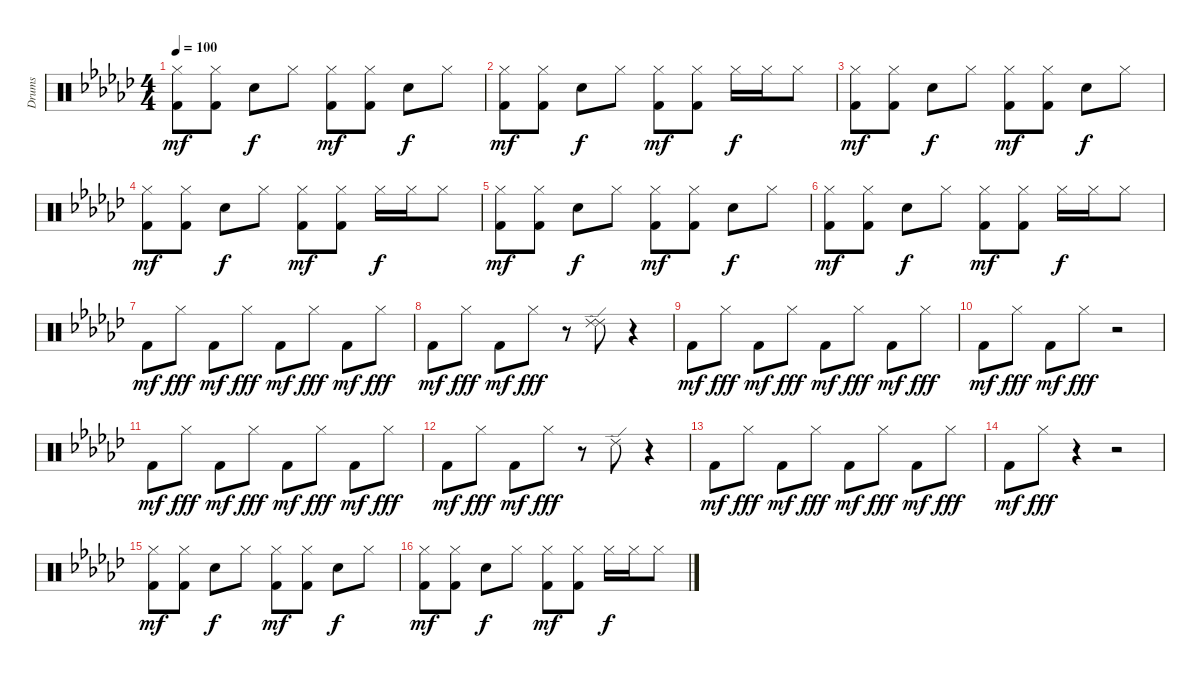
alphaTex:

\track ("Drums" "Drums") {instrument percussion}
\staff {score}
\articulation defaults
\ts (4 4)
\tempo 100
\clef neutral
\ks ebminor
("Hi-Hat (closed)" "Kick (hit) 2").8{dy mf} ("Hi-Hat (closed)" "Kick (hit) 2").8 "Snare (hit) 2".8{dy f} "Hi-Hat (closed)".8 ("Hi-Hat (closed)" "Kick (hit) 2").8{dy mf} ("Hi-Hat (closed)" "Kick (hit) 2").8 "Snare (hit) 2".8{dy f} "Hi-Hat (closed)".8 |
("Hi-Hat (closed)" "Kick (hit) 2").8{dy mf} ("Hi-Hat (closed)" "Kick (hit) 2").8 "Snare (hit) 2".8{dy f} "Hi-Hat (closed)".8 ("Hi-Hat (closed)" "Kick (hit) 2").8{dy mf} ("Hi-Hat (closed)" "Kick (hit) 2").8 "Hi-Hat (closed)".16{dy f} "Hi-Hat (closed)".16 "Hi-Hat (closed)".8 |
("Hi-Hat (closed)" "Kick (hit) 2").8{dy mf} ("Hi-Hat (closed)" "Kick (hit) 2").8 "Snare (hit) 2".8{dy f} "Hi-Hat (closed)".8 ("Hi-Hat (closed)" "Kick (hit) 2").8{dy mf} ("Hi-Hat (closed)" "Kick (hit) 2").8 "Snare (hit) 2".8{dy f} "Hi-Hat (closed)".8 |
("Hi-Hat (closed)" "Kick (hit) 2").8{dy mf} ("Hi-Hat (closed)" "Kick (hit) 2").8 "Snare (hit) 2".8{dy f} "Hi-Hat (closed)".8 ("Hi-Hat (closed)" "Kick (hit) 2").8{dy mf} ("Hi-Hat (closed)" "Kick (hit) 2").8 "Hi-Hat (closed)".16{dy f} "Hi-Hat (closed)".16 "Hi-Hat (closed)".8 |
("Hi-Hat (closed)" "Kick (hit) 2").8{dy mf} ("Hi-Hat (closed)" "Kick (hit) 2").8 "Snare (hit) 2".8{dy f} "Hi-Hat (closed)".8 ("Hi-Hat (closed)" "Kick (hit) 2").8{dy mf} ("Hi-Hat (closed)" "Kick (hit) 2").8 "Snare (hit) 2".8{dy f} "Hi-Hat (closed)".8 |
("Hi-Hat (closed)" "Kick (hit) 2").8{dy mf} ("Hi-Hat (closed)" "Kick (hit) 2").8 "Snare (hit) 2".8{dy f} "Hi-Hat (closed)".8 ("Hi-Hat (closed)" "Kick (hit) 2").8{dy mf} ("Hi-Hat (closed)" "Kick (hit) 2").8 "Hi-Hat (closed)".16{dy f} "Hi-Hat (closed)".16 "Hi-Hat (closed)".8 |
"Kick (hit) 2".8{dy mf} "Hi-Hat (closed)".8{dy fff} "Kick (hit) 2".8{dy mf} "Hi-Hat (closed)".8{dy fff} "Kick (hit) 2".8{dy mf} "Hi-Hat (closed)".8{dy fff} "Kick (hit) 2".8{dy mf} "Hi-Hat (closed)".8{dy fff} |
"Kick (hit) 2".8{dy mf} "Hi-Hat (closed)".8{dy fff} "Kick (hit) 2".8{dy mf} "Hi-Hat (closed)".8{dy fff} r.8 ("Ride (edge) 2" "Ride (edge) 2").8 r.4 |
"Kick (hit) 2".8{dy mf} "Hi-Hat (closed)".8{dy fff} "Kick (hit) 2".8{dy mf} "Hi-Hat (closed)".8{dy fff} "Kick (hit) 2".8{dy mf} "Hi-Hat (closed)".8{dy fff} "Kick (hit) 2".8{dy mf} "Hi-Hat (closed)".8{dy fff} |
"Kick (hit) 2".8{dy mf} "Hi-Hat (closed)".8{dy fff} "Kick (hit) 2".8{dy mf} "Hi-Hat (closed)".8{dy fff} r.2 |
"Kick (hit) 2".8{dy mf} "Hi-Hat (closed)".8{dy fff} "Kick (hit) 2".8{dy mf} "Hi-Hat (closed)".8{dy fff} "Kick (hit) 2".8{dy mf} "Hi-Hat (closed)".8{dy fff} "Kick (hit) 2".8{dy mf} "Hi-Hat (closed)".8{dy fff} |
"Kick (hit) 2".8{dy mf} "Hi-Hat (closed)".8{dy fff} "Kick (hit) 2".8{dy mf} "Hi-Hat (closed)".8{dy fff} r.8 "Ride (edge) 2".8 r.4 |
"Kick (hit) 2".8{dy mf} "Hi-Hat (closed)".8{dy fff} "Kick (hit) 2".8{dy mf} "Hi-Hat (closed)".8{dy fff} "Kick (hit) 2".8{dy mf} "Hi-Hat (closed)".8{dy fff} "Kick (hit) 2".8{dy mf} "Hi-Hat (closed)".8{dy fff} |
"Kick (hit) 2".8{dy mf} "Hi-Hat (closed)".8{dy fff} r.4 r.2 |
("Hi-Hat (closed)" "Kick (hit) 2").8{dy mf} ("Hi-Hat (closed)" "Kick (hit) 2").8 "Snare (hit) 2".8{dy f} "Hi-Hat (closed)".8 ("Hi-Hat (closed)" "Kick (hit) 2").8{dy mf} ("Hi-Hat (closed)" "Kick (hit) 2").8 "Snare (hit) 2".8{dy f} "Hi-Hat (closed)".8 |
("Hi-Hat (closed)" "Kick (hit) 2").8{dy mf} ("Hi-Hat (closed)" "Kick (hit) 2").8 "Snare (hit) 2".8{dy f} "Hi-Hat (closed)".8 ("Hi-Hat (closed)" "Kick (hit) 2").8{dy mf} ("Hi-Hat (closed)" "Kick (hit) 2").8 "Hi-Hat (closed)".16{dy f} "Hi-Hat (closed)".16 "Hi-Hat (closed)".8
